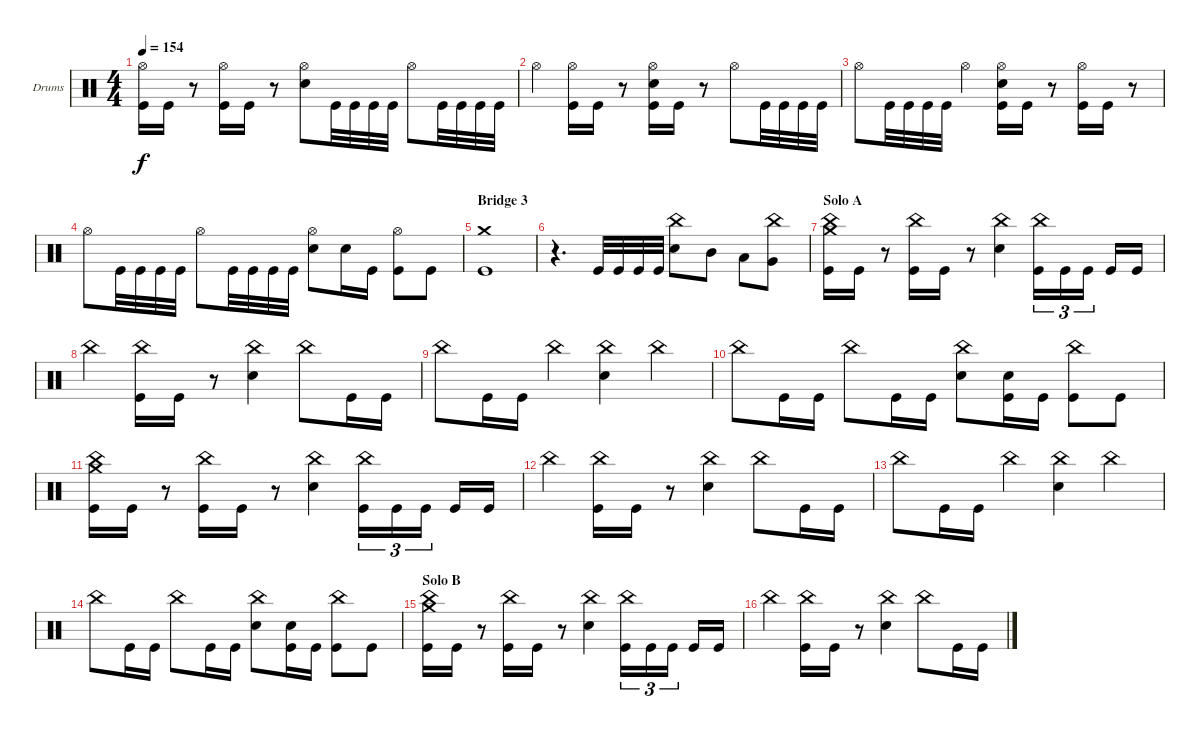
\defaultSystemsLayout 4
\bracketExtendMode groupsimilarinstruments
\firstSystemTrackNameOrientation horizontal
\otherSystemsTrackNameOrientation horizontal
\track ("Drums" "Drums") {instrument percussion}
\staff {score}
\articulation defaults
\ts (4 4)
\tempo 154
\clef neutral
\ks c
("Hi-Hat (open)" "Kick (hit)").16{dy f} "Kick (hit)".16 r.8 ("Kick (hit)" "Hi-Hat (open)").16 "Kick (hit)".16 r.8 ("Hi-Hat (open)" "Snare (hit) 2").8 "Kick (hit)".32 "Kick (hit)".32 "Kick (hit)".32 "Kick (hit)".32 "Hi-Hat (open)".8 "Kick (hit)".32 "Kick (hit)".32 "Kick (hit)".32 "Kick (hit)".32 |
"Hi-Hat (open)".4 ("Kick (hit)" "Hi-Hat (open)").16 "Kick (hit)".16 r.8 ("Kick (hit)" "Hi-Hat (open)" "Snare (hit) 2").16 "Kick (hit)".16 r.8 "Hi-Hat (open)".8 "Kick (hit)".32 "Kick (hit)".32 "Kick (hit)".32 "Kick (hit)".32 |
"Hi-Hat (open)".8 "Kick (hit)".32 "Kick (hit)".32 "Kick (hit)".32 "Kick (hit)".32 "Hi-Hat (open)".4 ("Kick (hit)" "Hi-Hat (open)" "Snare (hit) 2").16 "Kick (hit)".16 r.8 ("Kick (hit)" "Hi-Hat (open)").16 "Kick (hit)".16 r.8 |
"Hi-Hat (open)".8 "Kick (hit)".32 "Kick (hit)".32 "Kick (hit)".32 "Kick (hit)".32 "Hi-Hat (open)".8 "Kick (hit)".32 "Kick (hit)".32 "Kick (hit)".32 "Kick (hit)".32 ("Hi-Hat (open)" "Snare (hit) 2").8 "Snare (hit) 2".16 "Kick (hit)".16 ("Kick (hit)" "Hi-Hat (open)").8 "Kick (hit)".8 |
\section ("" "Bridge 3")
("Kick (hit)" "Crash medium (hit)").1 |
r.4{d} "Kick (hit)".32 "Kick (hit)".32 "Kick (hit)".32 "Kick (hit)".32 ("Snare (hit) 2" "China (hit)").8 "Mid Tom (hit)".8 "Low Tom (hit)".8 ("Very Low Tom (hit)" "China (hit)").8 |
\section ("" "Solo A")
("Kick (hit)" "China (hit)" "Crash medium (hit)").16 "Kick (hit)".16 r.8 ("Kick (hit)" "China (hit)").16 "Kick (hit)".16 r.8 ("Snare (hit) 2" "China (hit)").4 ("Kick (hit)" "China (hit)").16{tu (3 2)} "Kick (hit)".16{tu (3 2)} "Kick (hit)".16{tu (3 2)} "Kick (hit)".16 "Kick (hit)".16 |
"China (hit)".4 ("Kick (hit)" "China (hit)").16 "Kick (hit)".16 r.8 ("Snare (hit) 2" "China (hit)").4 "China (hit)".8 "Kick (hit)".16 "Kick (hit)".16 |
"China (hit)".8 "Kick (hit)".16 "Kick (hit)".16 "China (hit)".4 ("China (hit)" "Snare (hit) 2").4 "China (hit)".4 |
"China (hit)".8 "Kick (hit)".16 "Kick (hit)".16 "China (hit)".8 "Kick (hit)".16 "Kick (hit)".16 ("China (hit)" "Snare (hit) 2").8 ("Kick (hit)" "Snare (hit) 2").16 "Kick (hit)".16 ("Kick (hit)" "China (hit)").8 "Kick (hit)".8 |
("Kick (hit)" "China (hit)" "Crash medium (hit)").16 "Kick (hit)".16 r.8 ("Kick (hit)" "China (hit)").16 "Kick (hit)".16 r.8 ("Snare (hit) 2" "China (hit)").4 ("Kick (hit)" "China (hit)").16{tu (3 2)} "Kick (hit)".16{tu (3 2)} "Kick (hit)".16{tu (3 2)} "Kick (hit)".16 "Kick (hit)".16 |
"China (hit)".4 ("Kick (hit)" "China (hit)").16 "Kick (hit)".16 r.8 ("Snare (hit) 2" "China (hit)").4 "China (hit)".8 "Kick (hit)".16 "Kick (hit)".16 |
"China (hit)".8 "Kick (hit)".16 "Kick (hit)".16 "China (hit)".4 ("China (hit)" "Snare (hit) 2").4 "China (hit)".4 |
"China (hit)".8 "Kick (hit)".16 "Kick (hit)".16 "China (hit)".8 "Kick (hit)".16 "Kick (hit)".16 ("China (hit)" "Snare (hit) 2").8 ("Kick (hit)" "Snare (hit) 2").16 "Kick (hit)".16 ("Kick (hit)" "China (hit)").8 "Kick (hit)".8 |
\section ("" "Solo B")
("Kick (hit)" "China (hit)" "Crash medium (hit)").16 "Kick (hit)".16 r.8 ("Kick (hit)" "China (hit)").16 "Kick (hit)".16 r.8 ("Snare (hit) 2" "China (hit)").4 ("Kick (hit)" "China (hit)").16{tu (3 2)} "Kick (hit)".16{tu (3 2)} "Kick (hit)".16{tu (3 2)} "Kick (hit)".16 "Kick (hit)".16 |
"China (hit)".4 ("Kick (hit)" "China (hit)").16 "Kick (hit)".16 r.8 ("Snare (hit) 2" "China (hit)").4 "China (hit)".8 "Kick (hit)".16 "Kick (hit)".16
